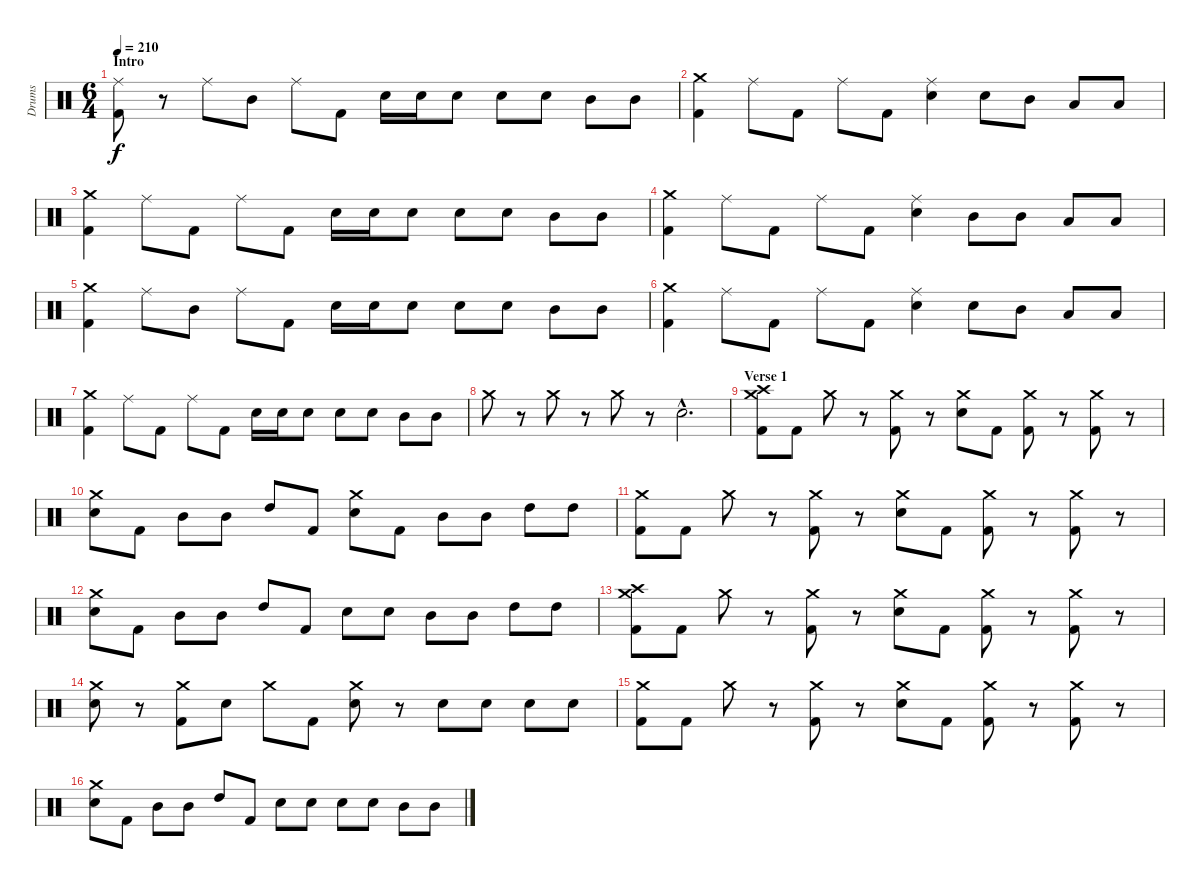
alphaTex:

\track ("Drums" "Drums") {instrument percussion}
\staff {score}
\articulation defaults
\ts (6 4)
\section ("" "Intro")
\tempo 210
\clef neutral
\ks c
("Ride (middle)" "Kick (hit) 2").8{dy f} r.8 "Ride (middle)".8 "Mid Tom (hit)".8 "Ride (middle)".8 "Kick (hit) 2".8 "Electric Snare (hit)".16 "Electric Snare (hit)".16 "Electric Snare (hit)".8 "Electric Snare (hit)".8 "Electric Snare (hit)".8 "Mid Tom (hit)".8 "Mid Tom (hit)".8 |
("Crash medium (hit)" "Kick (hit) 2").4 "Ride (middle)".8 "Kick (hit) 2".8 "Ride (middle)".8 "Kick (hit) 2".8 ("Ride (middle)" "Electric Snare (hit)").4 "Electric Snare (hit)".8 "Mid Tom (hit)".8 "Low Floor Tom (hit)".8 "Low Floor Tom (hit)".8 |
("Crash medium (hit)" "Kick (hit) 2").4 "Ride (middle)".8 "Kick (hit) 2".8 "Ride (middle)".8 "Kick (hit) 2".8 "Electric Snare (hit)".16 "Electric Snare (hit)".16 "Electric Snare (hit)".8 "Electric Snare (hit)".8 "Electric Snare (hit)".8 "Mid Tom (hit)".8 "Mid Tom (hit)".8 |
("Crash medium (hit)" "Kick (hit) 2").4 "Ride (middle)".8 "Kick (hit) 2".8 "Ride (middle)".8 "Kick (hit) 2".8 ("Ride (middle)" "Electric Snare (hit)").4 "Mid Tom (hit)".8 "Mid Tom (hit)".8 "Low Floor Tom (hit)".8 "Low Floor Tom (hit)".8 |
("Crash medium (hit)" "Kick (hit) 2").4 "Ride (middle)".8 "Mid Tom (hit)".8 "Ride (middle)".8 "Kick (hit) 2".8 "Electric Snare (hit)".16 "Electric Snare (hit)".16 "Electric Snare (hit)".8 "Electric Snare (hit)".8 "Electric Snare (hit)".8 "Mid Tom (hit)".8 "Mid Tom (hit)".8 |
("Crash medium (hit)" "Kick (hit) 2").4 "Ride (middle)".8 "Kick (hit) 2".8 "Ride (middle)".8 "Kick (hit) 2".8 ("Ride (middle)" "Electric Snare (hit)").4 "Electric Snare (hit)".8 "Mid Tom (hit)".8 "Low Floor Tom (hit)".8 "Low Floor Tom (hit)".8 |
("Crash medium (hit)" "Kick (hit) 2").4 "Ride (middle)".8 "Kick (hit) 2".8 "Ride (middle)".8 "Kick (hit) 2".8 "Electric Snare (hit)".16 "Electric Snare (hit)".16 "Electric Snare (hit)".8 "Electric Snare (hit)".8 "Electric Snare (hit)".8 "Mid Tom (hit)".8 "Mid Tom (hit)".8 |
"Crash medium (hit)".8 r.8 "Crash medium (hit)".8 r.8 "Crash medium (hit)".8 r.8 "Electric Snare (hit)"{hac}.2{d} |
\section ("" "Verse 1")
("Crash medium (hit)" "Crash high (hit)" "Kick (hit) 2").8 "Kick (hit) 2".8 "Crash medium (hit)".8 r.8 ("Crash medium (hit)" "Kick (hit) 2").8 r.8 ("Crash medium (hit)" "Electric Snare (hit)").8 "Kick (hit) 2".8 ("Crash medium (hit)" "Kick (hit) 2").8 r.8 ("Crash medium (hit)" "Kick (hit) 2").8 r.8 |
("Crash medium (hit)" "Electric Snare (hit)").8 "Kick (hit) 2".8 "Mid Tom (hit)".8 "Mid Tom (hit)".8 "High Tom (hit)".8 "Kick (hit) 2".8 ("Crash medium (hit)" "Electric Snare (hit)").8 "Kick (hit) 2".8 "Mid Tom (hit)".8 "Mid Tom (hit)".8 "High Tom (hit)".8 "High Tom (hit)".8 |
("Crash medium (hit)" "Kick (hit) 2").8 "Kick (hit) 2".8 "Crash medium (hit)".8 r.8 ("Crash medium (hit)" "Kick (hit) 2").8 r.8 ("Crash medium (hit)" "Electric Snare (hit)").8 "Kick (hit) 2".8 ("Crash medium (hit)" "Kick (hit) 2").8 r.8 ("Crash medium (hit)" "Kick (hit) 2").8 r.8 |
("Crash medium (hit)" "Electric Snare (hit)").8 "Kick (hit) 2".8 "Mid Tom (hit)".8 "Mid Tom (hit)".8 "High Tom (hit)".8 "Kick (hit) 2".8 "Electric Snare (hit)".8 "Electric Snare (hit)".8 "Mid Tom (hit)".8 "Mid Tom (hit)".8 "High Tom (hit)".8 "High Tom (hit)".8 |
("Crash medium (hit)" "Crash high (hit)" "Kick (hit) 2").8 "Kick (hit) 2".8 "Crash medium (hit)".8 r.8 ("Crash medium (hit)" "Kick (hit) 2").8 r.8 ("Crash medium (hit)" "Electric Snare (hit)").8 "Kick (hit) 2".8 ("Crash medium (hit)" "Kick (hit) 2").8 r.8 ("Crash medium (hit)" "Kick (hit) 2").8 r.8 |
("Crash medium (hit)" "Electric Snare (hit)").8 r.8 ("Crash medium (hit)" "Kick (hit) 2").8 "Electric Snare (hit)".8 "Crash medium (hit)".8 "Kick (hit) 2".8 ("Crash medium (hit)" "Electric Snare (hit)").8 r.8 "Electric Snare (hit)".8 "Electric Snare (hit)".8 "Electric Snare (hit)".8 "Electric Snare (hit)".8 |
("Crash medium (hit)" "Kick (hit) 2").8 "Kick (hit) 2".8 "Crash medium (hit)".8 r.8 ("Crash medium (hit)" "Kick (hit) 2").8 r.8 ("Crash medium (hit)" "Electric Snare (hit)").8 "Kick (hit) 2".8 ("Crash medium (hit)" "Kick (hit) 2").8 r.8 ("Crash medium (hit)" "Kick (hit) 2").8 r.8 |
("Crash medium (hit)" "Electric Snare (hit)").8 "Kick (hit) 2".8 "Mid Tom (hit)".8 "Mid Tom (hit)".8 "High Tom (hit)".8 "Kick (hit) 2".8 "Electric Snare (hit)".8 "Electric Snare (hit)".8 "Electric Snare (hit)".8 "Electric Snare (hit)".8 "Mid Tom (hit)".8 "Mid Tom (hit)".8
